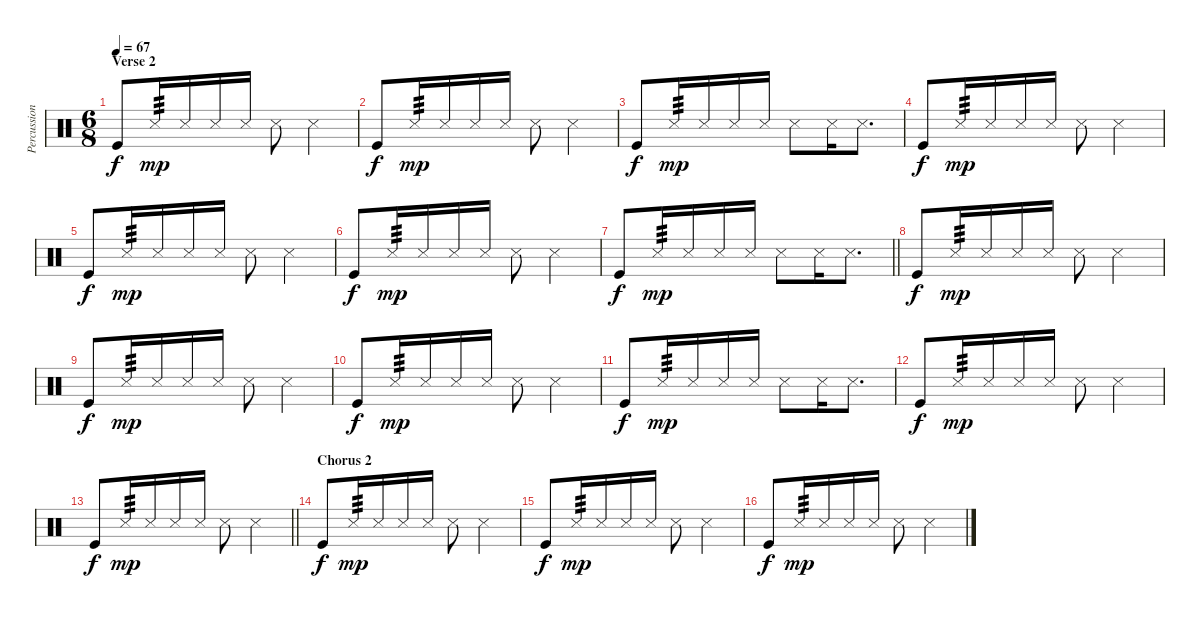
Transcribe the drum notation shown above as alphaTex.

\track ("Percussions" "Percussion") {instrument percussion}
\staff {score}
\articulation defaults
\ts (6 8)
\section ("" "Verse 2")
\tempo 67
\clef neutral
\ks c "Kick (hit)".8{dy f} "Snare (side stick) 3".16{tp 3 dy mp} "Snare (side stick) 3".16 "Snare (side stick) 3".16 "Snare (side stick) 3".16 "Snare (side stick) 3".8 "Snare (side stick) 3".4
|
"Kick (hit)".8{dy f} "Snare (side stick) 3".16{tp 3 dy mp} "Snare (side stick) 3".16 "Snare (side stick) 3".16 "Snare (side stick) 3".16 "Snare (side stick) 3".8 "Snare (side stick) 3".4 |
"Kick (hit)".8{dy f} "Snare (side stick) 3".16{tp 3 dy mp} "Snare (side stick) 3".16 "Snare (side stick) 3".16 "Snare (side stick) 3".16 "Snare (side stick) 3".8 "Snare (side stick) 3".16 "Snare (side stick) 3".8{d} |
"Kick (hit)".8{dy f} "Snare (side stick) 3".16{tp 3 dy mp} "Snare (side stick) 3".16 "Snare (side stick) 3".16 "Snare (side stick) 3".16 "Snare (side stick) 3".8 "Snare (side stick) 3".4 |
"Kick (hit)".8{dy f} "Snare (side stick) 3".16{tp 3 dy mp} "Snare (side stick) 3".16 "Snare (side stick) 3".16 "Snare (side stick) 3".16 "Snare (side stick) 3".8 "Snare (side stick) 3".4 |
"Kick (hit)".8{dy f} "Snare (side stick) 3".16{tp 3 dy mp} "Snare (side stick) 3".16 "Snare (side stick) 3".16 "Snare (side stick) 3".16 "Snare (side stick) 3".8 "Snare (side stick) 3".4 |
\barLineRight lightlight "Kick (hit)".8{dy f} "Snare (side stick) 3".16{tp 3 dy mp} "Snare (side stick) 3".16 "Snare (side stick) 3".16 "Snare (side stick) 3".16 "Snare (side stick) 3".8 "Snare (side stick) 3".16 "Snare (side stick) 3".8{d}
|
"Kick (hit)".8{dy f} "Snare (side stick) 3".16{tp 3 dy mp} "Snare (side stick) 3".16 "Snare (side stick) 3".16 "Snare (side stick) 3".16 "Snare (side stick) 3".8 "Snare (side stick) 3".4 |
"Kick (hit)".8{dy f} "Snare (side stick) 3".16{tp 3 dy mp} "Snare (side stick) 3".16 "Snare (side stick) 3".16 "Snare (side stick) 3".16 "Snare (side stick) 3".8 "Snare (side stick) 3".4 |
"Kick (hit)".8{dy f} "Snare (side stick) 3".16{tp 3 dy mp} "Snare (side stick) 3".16 "Snare (side stick) 3".16 "Snare (side stick) 3".16 "Snare (side stick) 3".8 "Snare (side stick) 3".4 |
"Kick (hit)".8{dy f} "Snare (side stick) 3".16{tp 3 dy mp} "Snare (side stick) 3".16 "Snare (side stick) 3".16 "Snare (side stick) 3".16 "Snare (side stick) 3".8 "Snare (side stick) 3".16 "Snare (side stick) 3".8{d} |
"Kick (hit)".8{dy f} "Snare (side stick) 3".16{tp 3 dy mp} "Snare (side stick) 3".16 "Snare (side stick) 3".16 "Snare (side stick) 3".16 "Snare (side stick) 3".8 "Snare (side stick) 3".4 |
\barLineRight lightlight "Kick (hit)".8{dy f} "Snare (side stick) 3".16{tp 3 dy mp} "Snare (side stick) 3".16 "Snare (side stick) 3".16 "Snare (side stick) 3".16 "Snare (side stick) 3".8 "Snare (side stick) 3".4
|
\section ("" "Chorus 2")
"Kick (hit)".8{dy f} "Snare (side stick) 3".16{tp 3 dy mp} "Snare (side stick) 3".16 "Snare (side stick) 3".16 "Snare (side stick) 3".16 "Snare (side stick) 3".8 "Snare (side stick) 3".4 |
"Kick (hit)".8{dy f} "Snare (side stick) 3".16{tp 3 dy mp} "Snare (side stick) 3".16 "Snare (side stick) 3".16 "Snare (side stick) 3".16 "Snare (side stick) 3".8 "Snare (side stick) 3".4 |
"Kick (hit)".8{dy f} "Snare (side stick) 3".16{tp 3 dy mp} "Snare (side stick) 3".16 "Snare (side stick) 3".16 "Snare (side stick) 3".16 "Snare (side stick) 3".8 "Snare (side stick) 3".4
